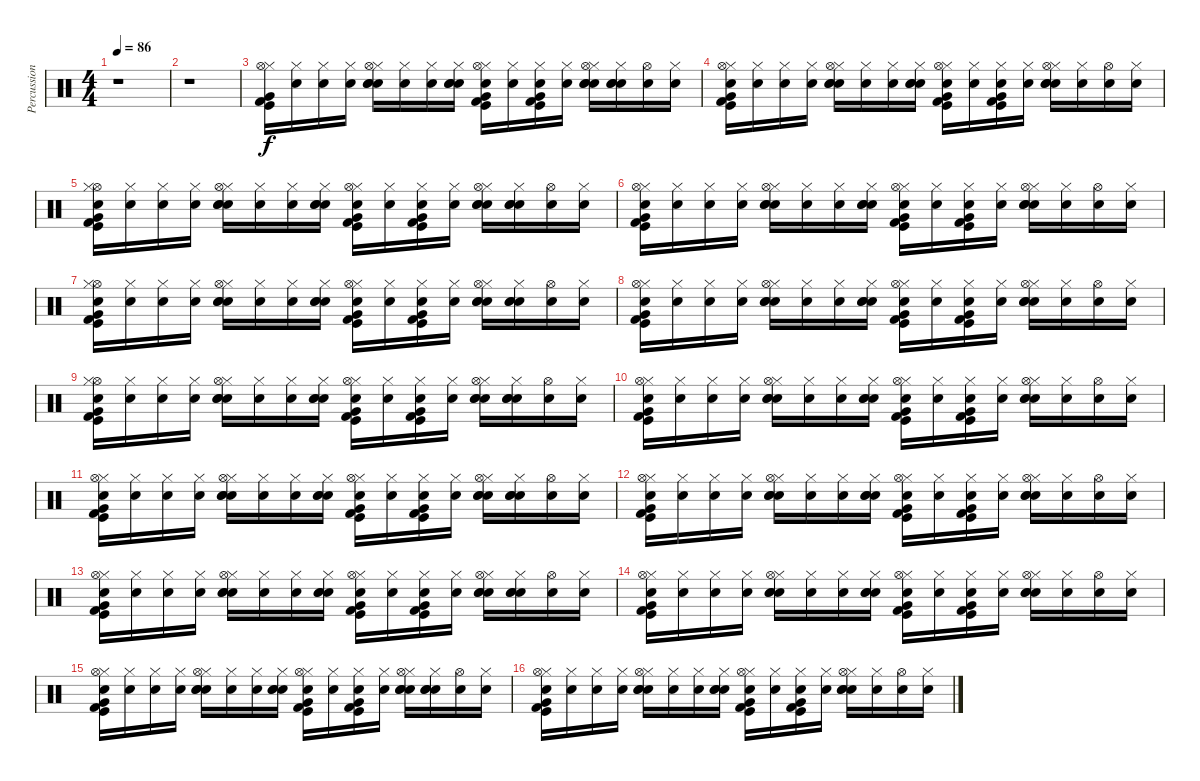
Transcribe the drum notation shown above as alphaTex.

\track ("Percussions (from MIDI)" "Percussion") {instrument percussion}
\staff {score}
\articulation defaults
\ts (4 4)
\tempo 86
\clef neutral
\ks c
r.1{dy f} |
r.1 |
("Kick (hit)" "Kick (hit) 2" "Very Low Tom (hit)" "Hi-Hat (closed)" "Hi-Hat (open)").16 ("Snare (hit)" "Hi-Hat (closed)").16 ("Snare (hit)" "Hi-Hat (closed)").16 ("Snare (hit)" "Hi-Hat (closed)").16 ("Snare (hit)" "Hi-Hat (closed)" "Electric Snare (hit)" "Snare (hit) 2" "Hi-Hat (open)").16 ("Snare (hit)" "Hi-Hat (closed)").16 ("Snare (hit)" "Hi-Hat (closed)").16 ("Snare (hit)" "Hi-Hat (closed)" "Electric Snare (hit)" "Snare (hit) 2").16 ("Snare (hit)" "Hi-Hat (closed)" "Very Low Tom (hit)" "Kick (hit) 2" "Kick (hit)" "Hi-Hat (open)").16 ("Snare (hit)" "Hi-Hat (closed)").16 ("Snare (hit)" "Hi-Hat (closed)" "Very Low Tom (hit)" "Kick (hit) 2" "Kick (hit)").16 ("Snare (hit)" "Hi-Hat (closed)").16 ("Snare (hit)" "Hi-Hat (closed)" "Electric Snare (hit)" "Snare (hit) 2" "Hi-Hat (open)").16 ("Snare (hit)" "Hi-Hat (closed)" "Snare (hit) 2" "Electric Snare (hit)").16 ("Snare (hit)" "Hi-Hat (open)").16 ("Snare (hit)" "Hi-Hat (closed)").16 |
("Snare (hit)" "Kick (hit)" "Kick (hit) 2" "Very Low Tom (hit)" "Hi-Hat (closed)" "Hi-Hat (open)").16 ("Snare (hit)" "Hi-Hat (closed)").16 ("Snare (hit)" "Hi-Hat (closed)").16 ("Snare (hit)" "Hi-Hat (closed)").16 ("Snare (hit)" "Hi-Hat (closed)" "Electric Snare (hit)" "Snare (hit) 2" "Hi-Hat (open)").16 ("Snare (hit)" "Hi-Hat (closed)").16 ("Snare (hit)" "Hi-Hat (closed)").16 ("Snare (hit)" "Hi-Hat (closed)" "Electric Snare (hit)" "Snare (hit) 2").16 ("Snare (hit)" "Hi-Hat (closed)" "Very Low Tom (hit)" "Kick (hit) 2" "Kick (hit)" "Hi-Hat (open)").16 ("Snare (hit)" "Hi-Hat (closed)").16 ("Snare (hit)" "Hi-Hat (closed)" "Very Low Tom (hit)" "Kick (hit) 2" "Kick (hit)").16 ("Snare (hit)" "Hi-Hat (closed)").16 ("Snare (hit)" "Hi-Hat (closed)" "Electric Snare (hit)" "Snare (hit) 2" "Hi-Hat (open)").16 ("Snare (hit)" "Hi-Hat (closed)").16 ("Snare (hit)" "Hi-Hat (open)").16 ("Snare (hit)" "Hi-Hat (closed)").16 |
("Snare (hit)" "Hi-Hat (open)" "Hi-Hat (closed)" "Very Low Tom (hit)" "Kick (hit) 2" "Kick (hit)").16 ("Snare (hit)" "Hi-Hat (closed)").16 ("Snare (hit)" "Hi-Hat (closed)").16 ("Snare (hit)" "Hi-Hat (closed)").16 ("Snare (hit)" "Hi-Hat (closed)" "Electric Snare (hit)" "Snare (hit) 2" "Hi-Hat (open)").16 ("Snare (hit)" "Hi-Hat (closed)").16 ("Snare (hit)" "Hi-Hat (closed)").16 ("Snare (hit)" "Hi-Hat (closed)" "Electric Snare (hit)" "Snare (hit) 2").16 ("Snare (hit)" "Hi-Hat (closed)" "Very Low Tom (hit)" "Kick (hit) 2" "Kick (hit)" "Hi-Hat (open)").16 ("Snare (hit)" "Hi-Hat (closed)").16 ("Snare (hit)" "Hi-Hat (closed)" "Very Low Tom (hit)" "Kick (hit) 2" "Kick (hit)").16 ("Snare (hit)" "Hi-Hat (closed)").16 ("Snare (hit)" "Hi-Hat (closed)" "Electric Snare (hit)" "Snare (hit) 2" "Hi-Hat (open)").16 ("Snare (hit)" "Hi-Hat (closed)" "Snare (hit) 2" "Electric Snare (hit)").16 ("Snare (hit)" "Hi-Hat (open)").16 ("Snare (hit)" "Hi-Hat (closed)").16 |
("Snare (hit)" "Kick (hit)" "Kick (hit) 2" "Very Low Tom (hit)" "Hi-Hat (closed)" "Hi-Hat (open)").16 ("Snare (hit)" "Hi-Hat (closed)").16 ("Snare (hit)" "Hi-Hat (closed)").16 ("Snare (hit)" "Hi-Hat (closed)").16 ("Snare (hit)" "Hi-Hat (closed)" "Electric Snare (hit)" "Snare (hit) 2" "Hi-Hat (open)").16 ("Snare (hit)" "Hi-Hat (closed)").16 ("Snare (hit)" "Hi-Hat (closed)").16 ("Snare (hit)" "Hi-Hat (closed)" "Electric Snare (hit)" "Snare (hit) 2").16 ("Snare (hit)" "Hi-Hat (closed)" "Very Low Tom (hit)" "Kick (hit) 2" "Kick (hit)" "Hi-Hat (open)").16 ("Snare (hit)" "Hi-Hat (closed)").16 ("Snare (hit)" "Hi-Hat (closed)" "Very Low Tom (hit)" "Kick (hit) 2" "Kick (hit)").16 ("Snare (hit)" "Hi-Hat (closed)").16 ("Snare (hit)" "Hi-Hat (closed)" "Electric Snare (hit)" "Snare (hit) 2" "Hi-Hat (open)").16 ("Snare (hit)" "Hi-Hat (closed)").16 ("Snare (hit)" "Hi-Hat (open)").16 ("Snare (hit)" "Hi-Hat (closed)").16 |
("Snare (hit)" "Hi-Hat (open)" "Hi-Hat (closed)" "Very Low Tom (hit)" "Kick (hit) 2" "Kick (hit)").16 ("Snare (hit)" "Hi-Hat (closed)").16 ("Snare (hit)" "Hi-Hat (closed)").16 ("Snare (hit)" "Hi-Hat (closed)").16 ("Snare (hit)" "Hi-Hat (closed)" "Electric Snare (hit)" "Snare (hit) 2" "Hi-Hat (open)").16 ("Snare (hit)" "Hi-Hat (closed)").16 ("Snare (hit)" "Hi-Hat (closed)").16 ("Snare (hit)" "Hi-Hat (closed)" "Electric Snare (hit)" "Snare (hit) 2").16 ("Snare (hit)" "Hi-Hat (closed)" "Very Low Tom (hit)" "Kick (hit) 2" "Kick (hit)" "Hi-Hat (open)").16 ("Snare (hit)" "Hi-Hat (closed)").16 ("Snare (hit)" "Hi-Hat (closed)" "Very Low Tom (hit)" "Kick (hit) 2" "Kick (hit)").16 ("Snare (hit)" "Hi-Hat (closed)").16 ("Snare (hit)" "Hi-Hat (closed)" "Electric Snare (hit)" "Snare (hit) 2" "Hi-Hat (open)").16 ("Snare (hit)" "Hi-Hat (closed)" "Snare (hit) 2" "Electric Snare (hit)").16 ("Snare (hit)" "Hi-Hat (open)").16 ("Snare (hit)" "Hi-Hat (closed)").16 |
("Snare (hit)" "Kick (hit)" "Kick (hit) 2" "Very Low Tom (hit)" "Hi-Hat (closed)" "Hi-Hat (open)").16 ("Snare (hit)" "Hi-Hat (closed)").16 ("Snare (hit)" "Hi-Hat (closed)").16 ("Snare (hit)" "Hi-Hat (closed)").16 ("Snare (hit)" "Hi-Hat (closed)" "Electric Snare (hit)" "Snare (hit) 2" "Hi-Hat (open)").16 ("Snare (hit)" "Hi-Hat (closed)").16 ("Snare (hit)" "Hi-Hat (closed)").16 ("Snare (hit)" "Hi-Hat (closed)" "Electric Snare (hit)" "Snare (hit) 2").16 ("Snare (hit)" "Hi-Hat (closed)" "Very Low Tom (hit)" "Kick (hit) 2" "Kick (hit)" "Hi-Hat (open)").16 ("Snare (hit)" "Hi-Hat (closed)").16 ("Snare (hit)" "Hi-Hat (closed)" "Very Low Tom (hit)" "Kick (hit) 2" "Kick (hit)").16 ("Snare (hit)" "Hi-Hat (closed)").16 ("Snare (hit)" "Hi-Hat (closed)" "Electric Snare (hit)" "Snare (hit) 2" "Hi-Hat (open)").16 ("Snare (hit)" "Hi-Hat (closed)").16 ("Snare (hit)" "Hi-Hat (open)").16 ("Snare (hit)" "Hi-Hat (closed)").16 |
("Snare (hit)" "Hi-Hat (open)" "Hi-Hat (closed)" "Very Low Tom (hit)" "Kick (hit) 2" "Kick (hit)").16 ("Snare (hit)" "Hi-Hat (closed)").16 ("Snare (hit)" "Hi-Hat (closed)").16 ("Snare (hit)" "Hi-Hat (closed)").16 ("Snare (hit)" "Hi-Hat (closed)" "Electric Snare (hit)" "Snare (hit) 2" "Hi-Hat (open)").16 ("Snare (hit)" "Hi-Hat (closed)").16 ("Snare (hit)" "Hi-Hat (closed)").16 ("Snare (hit)" "Hi-Hat (closed)" "Electric Snare (hit)" "Snare (hit) 2").16 ("Snare (hit)" "Hi-Hat (closed)" "Very Low Tom (hit)" "Kick (hit) 2" "Kick (hit)" "Hi-Hat (open)").16 ("Snare (hit)" "Hi-Hat (closed)").16 ("Snare (hit)" "Hi-Hat (closed)" "Very Low Tom (hit)" "Kick (hit) 2" "Kick (hit)").16 ("Snare (hit)" "Hi-Hat (closed)").16 ("Snare (hit)" "Hi-Hat (closed)" "Electric Snare (hit)" "Snare (hit) 2" "Hi-Hat (open)").16 ("Snare (hit)" "Hi-Hat (closed)" "Snare (hit) 2" "Electric Snare (hit)").16 ("Snare (hit)" "Hi-Hat (open)").16 ("Snare (hit)" "Hi-Hat (closed)").16 |
("Snare (hit)" "Kick (hit)" "Kick (hit) 2" "Very Low Tom (hit)" "Hi-Hat (closed)" "Hi-Hat (open)").16 ("Snare (hit)" "Hi-Hat (closed)").16 ("Snare (hit)" "Hi-Hat (closed)").16 ("Snare (hit)" "Hi-Hat (closed)").16 ("Snare (hit)" "Hi-Hat (closed)" "Electric Snare (hit)" "Snare (hit) 2" "Hi-Hat (open)").16 ("Snare (hit)" "Hi-Hat (closed)").16 ("Snare (hit)" "Hi-Hat (closed)").16 ("Snare (hit)" "Hi-Hat (closed)" "Electric Snare (hit)" "Snare (hit) 2").16 ("Snare (hit)" "Hi-Hat (closed)" "Very Low Tom (hit)" "Kick (hit) 2" "Kick (hit)" "Hi-Hat (open)").16 ("Snare (hit)" "Hi-Hat (closed)").16 ("Snare (hit)" "Hi-Hat (closed)" "Very Low Tom (hit)" "Kick (hit) 2" "Kick (hit)").16 ("Snare (hit)" "Hi-Hat (closed)").16 ("Snare (hit)" "Hi-Hat (closed)" "Electric Snare (hit)" "Snare (hit) 2" "Hi-Hat (open)").16 ("Snare (hit)" "Hi-Hat (closed)").16 ("Snare (hit)" "Hi-Hat (open)").16 ("Snare (hit)" "Hi-Hat (closed)").16 |
("Snare (hit)" "Kick (hit)" "Kick (hit) 2" "Very Low Tom (hit)" "Hi-Hat (closed)" "Hi-Hat (open)").16 ("Snare (hit)" "Hi-Hat (closed)").16 ("Snare (hit)" "Hi-Hat (closed)").16 ("Snare (hit)" "Hi-Hat (closed)").16 ("Snare (hit)" "Hi-Hat (closed)" "Electric Snare (hit)" "Snare (hit) 2" "Hi-Hat (open)").16 ("Snare (hit)" "Hi-Hat (closed)").16 ("Snare (hit)" "Hi-Hat (closed)").16 ("Snare (hit)" "Hi-Hat (closed)" "Electric Snare (hit)" "Snare (hit) 2").16 ("Snare (hit)" "Hi-Hat (closed)" "Very Low Tom (hit)" "Kick (hit) 2" "Kick (hit)" "Hi-Hat (open)").16 ("Snare (hit)" "Hi-Hat (closed)").16 ("Snare (hit)" "Hi-Hat (closed)" "Very Low Tom (hit)" "Kick (hit) 2" "Kick (hit)").16 ("Snare (hit)" "Hi-Hat (closed)").16 ("Snare (hit)" "Hi-Hat (closed)" "Electric Snare (hit)" "Snare (hit) 2" "Hi-Hat (open)").16 ("Snare (hit)" "Hi-Hat (closed)" "Snare (hit) 2" "Electric Snare (hit)").16 ("Snare (hit)" "Hi-Hat (open)").16 ("Snare (hit)" "Hi-Hat (closed)").16 |
("Snare (hit)" "Kick (hit)" "Kick (hit) 2" "Very Low Tom (hit)" "Hi-Hat (closed)" "Hi-Hat (open)").16 ("Snare (hit)" "Hi-Hat (closed)").16 ("Snare (hit)" "Hi-Hat (closed)").16 ("Snare (hit)" "Hi-Hat (closed)").16 ("Snare (hit)" "Hi-Hat (closed)" "Electric Snare (hit)" "Snare (hit) 2" "Hi-Hat (open)").16 ("Snare (hit)" "Hi-Hat (closed)").16 ("Snare (hit)" "Hi-Hat (closed)").16 ("Snare (hit)" "Hi-Hat (closed)" "Electric Snare (hit)" "Snare (hit) 2").16 ("Snare (hit)" "Hi-Hat (closed)" "Very Low Tom (hit)" "Kick (hit) 2" "Kick (hit)" "Hi-Hat (open)").16 ("Snare (hit)" "Hi-Hat (closed)").16 ("Snare (hit)" "Hi-Hat (closed)" "Very Low Tom (hit)" "Kick (hit) 2" "Kick (hit)").16 ("Snare (hit)" "Hi-Hat (closed)").16 ("Snare (hit)" "Hi-Hat (closed)" "Electric Snare (hit)" "Snare (hit) 2" "Hi-Hat (open)").16 ("Snare (hit)" "Hi-Hat (closed)").16 ("Snare (hit)" "Hi-Hat (open)").16 ("Snare (hit)" "Hi-Hat (closed)").16 |
("Snare (hit)" "Kick (hit)" "Kick (hit) 2" "Very Low Tom (hit)" "Hi-Hat (closed)" "Hi-Hat (open)").16 ("Snare (hit)" "Hi-Hat (closed)").16 ("Snare (hit)" "Hi-Hat (closed)").16 ("Snare (hit)" "Hi-Hat (closed)").16 ("Snare (hit)" "Hi-Hat (closed)" "Electric Snare (hit)" "Snare (hit) 2" "Hi-Hat (open)").16 ("Snare (hit)" "Hi-Hat (closed)").16 ("Snare (hit)" "Hi-Hat (closed)").16 ("Snare (hit)" "Hi-Hat (closed)" "Electric Snare (hit)" "Snare (hit) 2").16 ("Snare (hit)" "Hi-Hat (closed)" "Very Low Tom (hit)" "Kick (hit) 2" "Kick (hit)" "Hi-Hat (open)").16 ("Snare (hit)" "Hi-Hat (closed)").16 ("Snare (hit)" "Hi-Hat (closed)" "Very Low Tom (hit)" "Kick (hit) 2" "Kick (hit)").16 ("Snare (hit)" "Hi-Hat (closed)").16 ("Snare (hit)" "Hi-Hat (closed)" "Electric Snare (hit)" "Snare (hit) 2" "Hi-Hat (open)").16 ("Snare (hit)" "Hi-Hat (closed)" "Snare (hit) 2" "Electric Snare (hit)").16 ("Snare (hit)" "Hi-Hat (open)").16 ("Snare (hit)" "Hi-Hat (closed)").16 |
("Snare (hit)" "Kick (hit)" "Kick (hit) 2" "Very Low Tom (hit)" "Hi-Hat (closed)" "Hi-Hat (open)").16 ("Snare (hit)" "Hi-Hat (closed)").16 ("Snare (hit)" "Hi-Hat (closed)").16 ("Snare (hit)" "Hi-Hat (closed)").16 ("Snare (hit)" "Hi-Hat (closed)" "Electric Snare (hit)" "Snare (hit) 2" "Hi-Hat (open)").16 ("Snare (hit)" "Hi-Hat (closed)").16 ("Snare (hit)" "Hi-Hat (closed)").16 ("Snare (hit)" "Hi-Hat (closed)" "Electric Snare (hit)" "Snare (hit) 2").16 ("Snare (hit)" "Hi-Hat (closed)" "Very Low Tom (hit)" "Kick (hit) 2" "Kick (hit)" "Hi-Hat (open)").16 ("Snare (hit)" "Hi-Hat (closed)").16 ("Snare (hit)" "Hi-Hat (closed)" "Very Low Tom (hit)" "Kick (hit) 2" "Kick (hit)").16 ("Snare (hit)" "Hi-Hat (closed)").16 ("Snare (hit)" "Hi-Hat (closed)" "Electric Snare (hit)" "Snare (hit) 2" "Hi-Hat (open)").16 ("Snare (hit)" "Hi-Hat (closed)").16 ("Snare (hit)" "Hi-Hat (open)").16 ("Snare (hit)" "Hi-Hat (closed)").16 |
("Snare (hit)" "Kick (hit)" "Kick (hit) 2" "Very Low Tom (hit)" "Hi-Hat (closed)" "Hi-Hat (open)").16 ("Snare (hit)" "Hi-Hat (closed)").16 ("Snare (hit)" "Hi-Hat (closed)").16 ("Snare (hit)" "Hi-Hat (closed)").16 ("Snare (hit)" "Hi-Hat (closed)" "Electric Snare (hit)" "Snare (hit) 2" "Hi-Hat (open)").16 ("Snare (hit)" "Hi-Hat (closed)").16 ("Snare (hit)" "Hi-Hat (closed)").16 ("Snare (hit)" "Hi-Hat (closed)" "Electric Snare (hit)" "Snare (hit) 2").16 ("Snare (hit)" "Hi-Hat (closed)" "Very Low Tom (hit)" "Kick (hit) 2" "Kick (hit)" "Hi-Hat (open)").16 ("Snare (hit)" "Hi-Hat (closed)").16 ("Snare (hit)" "Hi-Hat (closed)" "Very Low Tom (hit)" "Kick (hit) 2" "Kick (hit)").16 ("Snare (hit)" "Hi-Hat (closed)").16 ("Snare (hit)" "Hi-Hat (closed)" "Electric Snare (hit)" "Snare (hit) 2" "Hi-Hat (open)").16 ("Snare (hit)" "Hi-Hat (closed)" "Snare (hit) 2" "Electric Snare (hit)").16 ("Snare (hit)" "Hi-Hat (open)").16 ("Snare (hit)" "Hi-Hat (closed)").16 |
("Snare (hit)" "Kick (hit)" "Kick (hit) 2" "Very Low Tom (hit)" "Hi-Hat (closed)" "Hi-Hat (open)").16 ("Snare (hit)" "Hi-Hat (closed)").16 ("Snare (hit)" "Hi-Hat (closed)").16 ("Snare (hit)" "Hi-Hat (closed)").16 ("Snare (hit)" "Hi-Hat (closed)" "Electric Snare (hit)" "Snare (hit) 2" "Hi-Hat (open)").16 ("Snare (hit)" "Hi-Hat (closed)").16 ("Snare (hit)" "Hi-Hat (closed)").16 ("Snare (hit)" "Hi-Hat (closed)" "Electric Snare (hit)" "Snare (hit) 2").16 ("Snare (hit)" "Hi-Hat (closed)" "Very Low Tom (hit)" "Kick (hit) 2" "Kick (hit)" "Hi-Hat (open)").16 ("Snare (hit)" "Hi-Hat (closed)").16 ("Snare (hit)" "Hi-Hat (closed)" "Very Low Tom (hit)" "Kick (hit) 2" "Kick (hit)").16 ("Snare (hit)" "Hi-Hat (closed)").16 ("Snare (hit)" "Hi-Hat (closed)" "Electric Snare (hit)" "Snare (hit) 2" "Hi-Hat (open)").16 ("Snare (hit)" "Hi-Hat (closed)").16 ("Snare (hit)" "Hi-Hat (open)").16 ("Snare (hit)" "Hi-Hat (closed)").16
